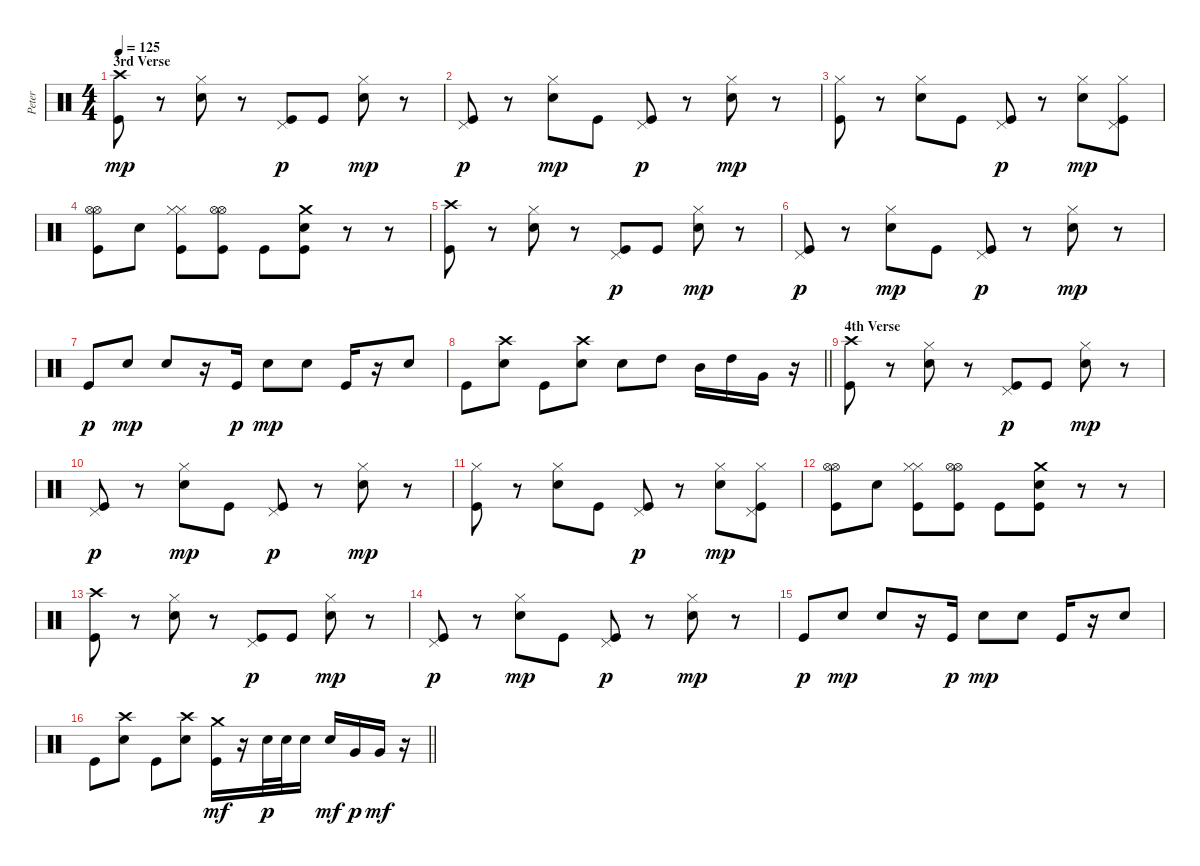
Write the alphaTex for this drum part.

\track ("Peter" "Peter") {instrument percussion}
\staff {score}
\articulation defaults
\ts (4 4)
\section ("" "3rd Verse")
\tempo 125
\clef neutral
\ks c
("Crash high (hit)" "Kick (hit)").8{dy mp} r.8 ("Hi-Hat (closed)" "Snare (hit) 2").8 r.8 ("Pedal Hi-Hat (hit)" "Kick (hit)").8{dy p} "Kick (hit)".8 ("Hi-Hat (closed)" "Snare (hit) 2").8{dy mp} r.8 |
("Pedal Hi-Hat (hit)" "Kick (hit)").8{dy p} r.8 ("Hi-Hat (closed)" "Snare (hit) 2").8{dy mp} "Kick (hit)".8 ("Pedal Hi-Hat (hit)" "Kick (hit)").8{dy p} r.8 ("Hi-Hat (closed)" "Snare (hit) 2").8{dy mp} r.8 |
("Hi-Hat (closed)" "Kick (hit)").8 r.8 ("Hi-Hat (closed)" "Snare (hit) 2").8 "Kick (hit)".8 ("Pedal Hi-Hat (hit)" "Kick (hit)").8{dy p} r.8 ("Hi-Hat (closed)" "Snare (hit) 2").8{dy mp} ("Hi-Hat (closed)" "Pedal Hi-Hat (hit)" "Kick (hit)").8 |
("Hi-Hat (open)" "Hi-Hat (open)" "Kick (hit)").8 "Snare (hit) 2".8 ("Hi-Hat (closed)" "Hi-Hat (closed)" "Kick (hit)").8 ("Hi-Hat (open)" "Hi-Hat (open)" "Kick (hit)").8 "Kick (hit)".8 ("Crash medium (hit)" "Snare (hit) 2" "Kick (hit)").8 r.8 r.8 |
("Crash high (hit)" "Kick (hit)").8 r.8 ("Hi-Hat (closed)" "Snare (hit) 2").8 r.8 ("Pedal Hi-Hat (hit)" "Kick (hit)").8{dy p} "Kick (hit)".8 ("Hi-Hat (closed)" "Snare (hit) 2").8{dy mp} r.8 |
("Pedal Hi-Hat (hit)" "Kick (hit)").8{dy p} r.8 ("Hi-Hat (closed)" "Snare (hit) 2").8{dy mp} "Kick (hit)".8 ("Pedal Hi-Hat (hit)" "Kick (hit)").8{dy p} r.8 ("Hi-Hat (closed)" "Snare (hit) 2").8{dy mp} r.8 |
"Kick (hit)".8{dy p} "Snare (hit) 2".8{dy mp} "Snare (hit) 2".8 r.16 "Kick (hit)".16{dy p} "Snare (hit) 2".8{dy mp} "Snare (hit) 2".8 "Kick (hit)".16 r.16 "Snare (hit) 2".8 |
\barLineRight lightlight "Kick (hit)".8
("Crash high (hit)" "Snare (hit) 2").8 "Kick (hit)".8 ("Crash high (hit)" "Snare (hit) 2").8 "Snare (hit) 2".8 "High Tom (hit)".8 "Mid Tom (hit)".16 "High Tom (hit)".16 "Very Low Tom (hit)".16 r.16 |
\section ("" "4th Verse")
("Crash high (hit)" "Kick (hit)").8 r.8 ("Hi-Hat (closed)" "Snare (hit) 2").8 r.8 ("Pedal Hi-Hat (hit)" "Kick (hit)").8{dy p} "Kick (hit)".8 ("Hi-Hat (closed)" "Snare (hit) 2").8{dy mp} r.8 |
("Pedal Hi-Hat (hit)" "Kick (hit)").8{dy p} r.8 ("Hi-Hat (closed)" "Snare (hit) 2").8{dy mp} "Kick (hit)".8 ("Pedal Hi-Hat (hit)" "Kick (hit)").8{dy p} r.8 ("Hi-Hat (closed)" "Snare (hit) 2").8{dy mp} r.8 |
("Hi-Hat (closed)" "Kick (hit)").8 r.8 ("Hi-Hat (closed)" "Snare (hit) 2").8 "Kick (hit)".8 ("Pedal Hi-Hat (hit)" "Kick (hit)").8{dy p} r.8 ("Hi-Hat (closed)" "Snare (hit) 2").8{dy mp} ("Hi-Hat (closed)" "Pedal Hi-Hat (hit)" "Kick (hit)").8 |
("Hi-Hat (open)" "Hi-Hat (open)" "Kick (hit)").8 "Snare (hit) 2".8 ("Hi-Hat (closed)" "Hi-Hat (closed)" "Kick (hit)").8 ("Hi-Hat (open)" "Hi-Hat (open)" "Kick (hit)").8 "Kick (hit)".8 ("Crash medium (hit)" "Snare (hit) 2" "Kick (hit)").8 r.8 r.8 |
("Crash high (hit)" "Kick (hit)").8 r.8 ("Hi-Hat (closed)" "Snare (hit) 2").8 r.8 ("Pedal Hi-Hat (hit)" "Kick (hit)").8{dy p} "Kick (hit)".8 ("Hi-Hat (closed)" "Snare (hit) 2").8{dy mp} r.8 |
("Pedal Hi-Hat (hit)" "Kick (hit)").8{dy p} r.8 ("Hi-Hat (closed)" "Snare (hit) 2").8{dy mp} "Kick (hit)".8 ("Pedal Hi-Hat (hit)" "Kick (hit)").8{dy p} r.8 ("Hi-Hat (closed)" "Snare (hit) 2").8{dy mp} r.8 |
"Kick (hit)".8{dy p} "Snare (hit) 2".8{dy mp} "Snare (hit) 2".8 r.16 "Kick (hit)".16{dy p} "Snare (hit) 2".8{dy mp} "Snare (hit) 2".8 "Kick (hit)".16 r.16 "Snare (hit) 2".8 |
\barLineRight lightlight "Kick (hit)".8
("Crash high (hit)" "Snare (hit) 2").8 "Kick (hit)".8 ("Crash high (hit)" "Snare (hit) 2").8 ("Crash medium (hit)" "Kick (hit)").16{dy mf} r.16 "Snare (hit) 2".32{dy p} "Snare (hit) 2".32 "Snare (hit) 2".16 "Snare (hit) 2".16{dy mf} "Very Low Tom (hit)".16{dy p} "Very Low Tom (hit)".16{dy mf} r.16
